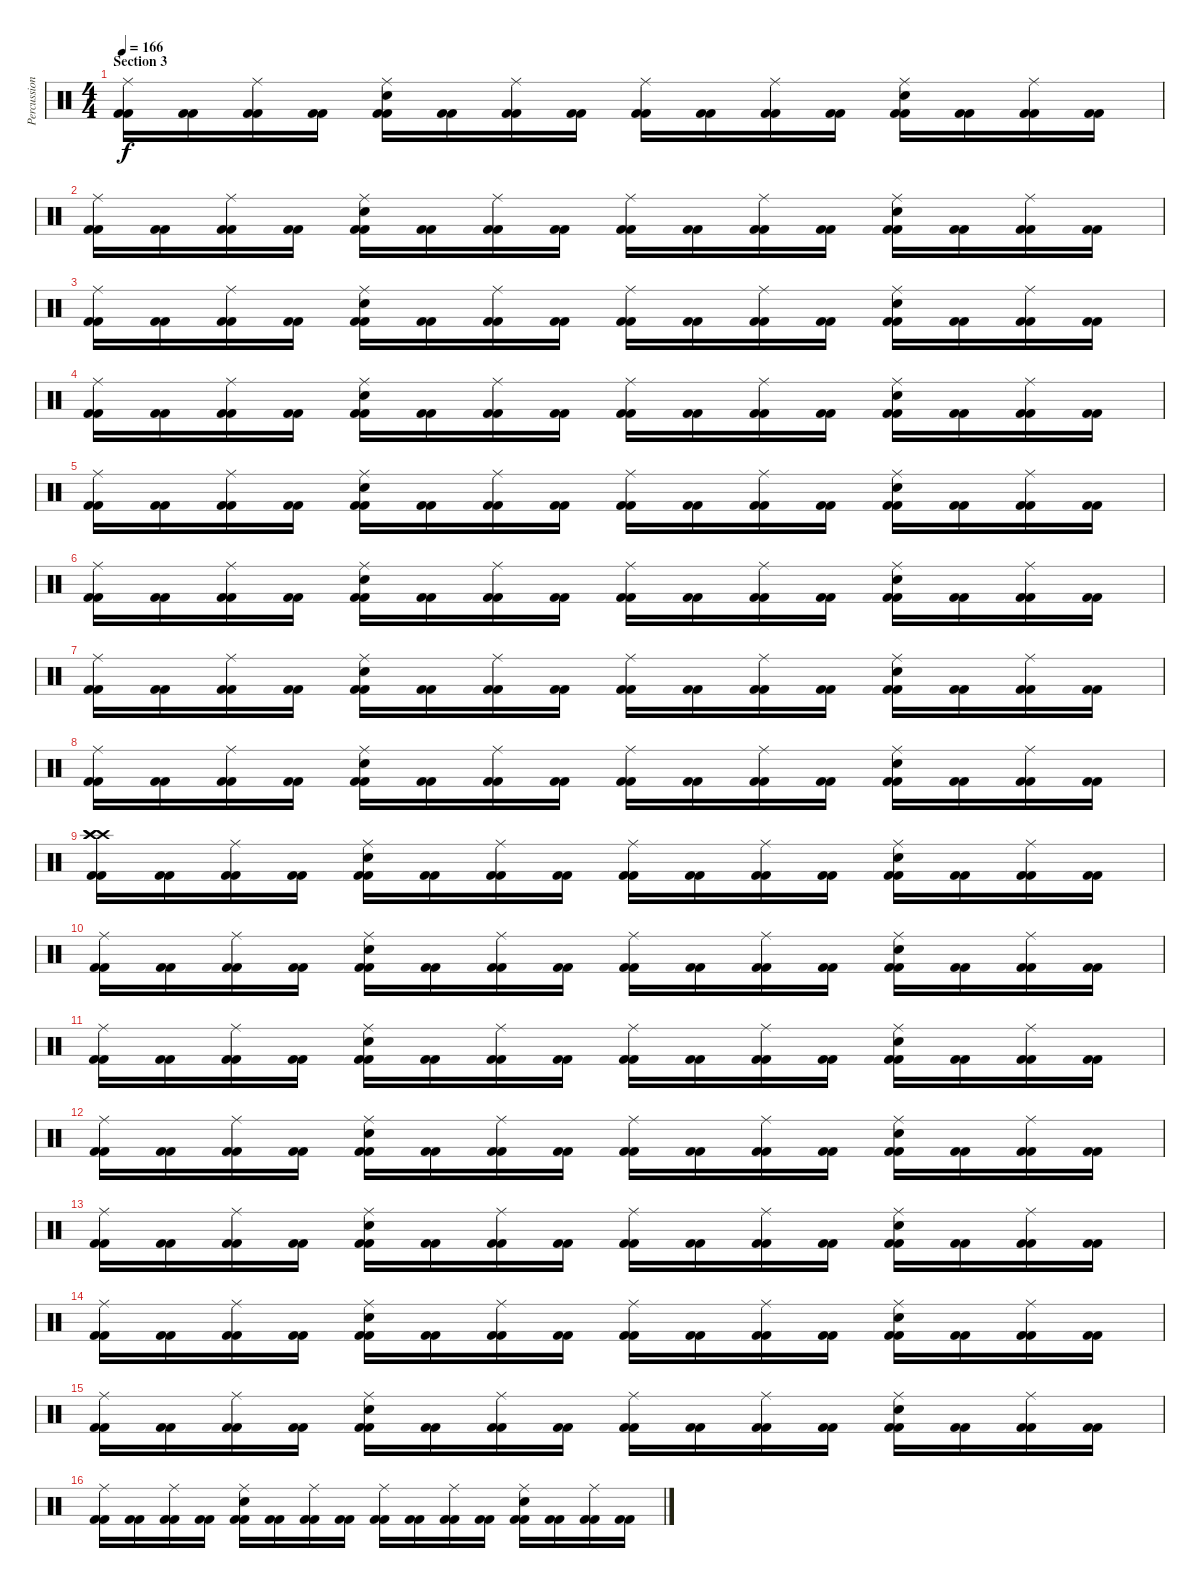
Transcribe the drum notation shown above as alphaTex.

\track ("Percussion" "Percussion") {instrument percussion}
\staff {score}
\articulation defaults
\ts (4 4)
\section ("" "Section 3")
\tempo 166
\clef neutral
\ks c
("Ride (middle)" "Kick (hit) 2" "Kick (hit) 2").16{dy f} ("Kick (hit) 2" "Kick (hit) 2").16 ("Ride (middle)" "Kick (hit) 2" "Kick (hit) 2").16 ("Kick (hit) 2" "Kick (hit) 2").16 ("Ride (middle)" "Electric Snare (hit)" "Kick (hit) 2" "Kick (hit) 2").16 ("Kick (hit) 2" "Kick (hit) 2").16 ("Ride (middle)" "Kick (hit) 2" "Kick (hit) 2").16 ("Kick (hit) 2" "Kick (hit) 2").16 ("Ride (middle)" "Kick (hit) 2" "Kick (hit) 2").16 ("Kick (hit) 2" "Kick (hit) 2").16 ("Ride (middle)" "Kick (hit) 2" "Kick (hit) 2").16 ("Kick (hit) 2" "Kick (hit) 2").16 ("Ride (middle)" "Electric Snare (hit)" "Kick (hit) 2" "Kick (hit) 2").16 ("Kick (hit) 2" "Kick (hit) 2").16 ("Ride (middle)" "Kick (hit) 2" "Kick (hit) 2").16 ("Kick (hit) 2" "Kick (hit) 2").16 |
("Ride (middle)" "Kick (hit) 2" "Kick (hit) 2").16 ("Kick (hit) 2" "Kick (hit) 2").16 ("Ride (middle)" "Kick (hit) 2" "Kick (hit) 2").16 ("Kick (hit) 2" "Kick (hit) 2").16 ("Ride (middle)" "Electric Snare (hit)" "Kick (hit) 2" "Kick (hit) 2").16 ("Kick (hit) 2" "Kick (hit) 2").16 ("Ride (middle)" "Kick (hit) 2" "Kick (hit) 2").16 ("Kick (hit) 2" "Kick (hit) 2").16 ("Ride (middle)" "Kick (hit) 2" "Kick (hit) 2").16 ("Kick (hit) 2" "Kick (hit) 2").16 ("Ride (middle)" "Kick (hit) 2" "Kick (hit) 2").16 ("Kick (hit) 2" "Kick (hit) 2").16 ("Ride (middle)" "Electric Snare (hit)" "Kick (hit) 2" "Kick (hit) 2").16 ("Kick (hit) 2" "Kick (hit) 2").16 ("Ride (middle)" "Kick (hit) 2" "Kick (hit) 2").16 ("Kick (hit) 2" "Kick (hit) 2").16 |
("Ride (middle)" "Kick (hit) 2" "Kick (hit) 2").16 ("Kick (hit) 2" "Kick (hit) 2").16 ("Ride (middle)" "Kick (hit) 2" "Kick (hit) 2").16 ("Kick (hit) 2" "Kick (hit) 2").16 ("Ride (middle)" "Electric Snare (hit)" "Kick (hit) 2" "Kick (hit) 2").16 ("Kick (hit) 2" "Kick (hit) 2").16 ("Ride (middle)" "Kick (hit) 2" "Kick (hit) 2").16 ("Kick (hit) 2" "Kick (hit) 2").16 ("Ride (middle)" "Kick (hit) 2" "Kick (hit) 2").16 ("Kick (hit) 2" "Kick (hit) 2").16 ("Ride (middle)" "Kick (hit) 2" "Kick (hit) 2").16 ("Kick (hit) 2" "Kick (hit) 2").16 ("Ride (middle)" "Electric Snare (hit)" "Kick (hit) 2" "Kick (hit) 2").16 ("Kick (hit) 2" "Kick (hit) 2").16 ("Ride (middle)" "Kick (hit) 2" "Kick (hit) 2").16 ("Kick (hit) 2" "Kick (hit) 2").16 |
("Ride (middle)" "Kick (hit) 2" "Kick (hit) 2").16 ("Kick (hit) 2" "Kick (hit) 2").16 ("Ride (middle)" "Kick (hit) 2" "Kick (hit) 2").16 ("Kick (hit) 2" "Kick (hit) 2").16 ("Ride (middle)" "Electric Snare (hit)" "Kick (hit) 2" "Kick (hit) 2").16 ("Kick (hit) 2" "Kick (hit) 2").16 ("Ride (middle)" "Kick (hit) 2" "Kick (hit) 2").16 ("Kick (hit) 2" "Kick (hit) 2").16 ("Ride (middle)" "Kick (hit) 2" "Kick (hit) 2").16 ("Kick (hit) 2" "Kick (hit) 2").16 ("Ride (middle)" "Kick (hit) 2" "Kick (hit) 2").16 ("Kick (hit) 2" "Kick (hit) 2").16 ("Ride (middle)" "Electric Snare (hit)" "Kick (hit) 2" "Kick (hit) 2").16 ("Kick (hit) 2" "Kick (hit) 2").16 ("Ride (middle)" "Kick (hit) 2" "Kick (hit) 2").16 ("Kick (hit) 2" "Kick (hit) 2").16 |
("Ride (middle)" "Kick (hit) 2" "Kick (hit) 2").16 ("Kick (hit) 2" "Kick (hit) 2").16 ("Ride (middle)" "Kick (hit) 2" "Kick (hit) 2").16 ("Kick (hit) 2" "Kick (hit) 2").16 ("Ride (middle)" "Electric Snare (hit)" "Kick (hit) 2" "Kick (hit) 2").16 ("Kick (hit) 2" "Kick (hit) 2").16 ("Ride (middle)" "Kick (hit) 2" "Kick (hit) 2").16 ("Kick (hit) 2" "Kick (hit) 2").16 ("Ride (middle)" "Kick (hit) 2" "Kick (hit) 2").16 ("Kick (hit) 2" "Kick (hit) 2").16 ("Ride (middle)" "Kick (hit) 2" "Kick (hit) 2").16 ("Kick (hit) 2" "Kick (hit) 2").16 ("Ride (middle)" "Electric Snare (hit)" "Kick (hit) 2" "Kick (hit) 2").16 ("Kick (hit) 2" "Kick (hit) 2").16 ("Ride (middle)" "Kick (hit) 2" "Kick (hit) 2").16 ("Kick (hit) 2" "Kick (hit) 2").16 |
("Ride (middle)" "Kick (hit) 2" "Kick (hit) 2").16 ("Kick (hit) 2" "Kick (hit) 2").16 ("Ride (middle)" "Kick (hit) 2" "Kick (hit) 2").16 ("Kick (hit) 2" "Kick (hit) 2").16 ("Ride (middle)" "Electric Snare (hit)" "Kick (hit) 2" "Kick (hit) 2").16 ("Kick (hit) 2" "Kick (hit) 2").16 ("Ride (middle)" "Kick (hit) 2" "Kick (hit) 2").16 ("Kick (hit) 2" "Kick (hit) 2").16 ("Ride (middle)" "Kick (hit) 2" "Kick (hit) 2").16 ("Kick (hit) 2" "Kick (hit) 2").16 ("Ride (middle)" "Kick (hit) 2" "Kick (hit) 2").16 ("Kick (hit) 2" "Kick (hit) 2").16 ("Ride (middle)" "Electric Snare (hit)" "Kick (hit) 2" "Kick (hit) 2").16 ("Kick (hit) 2" "Kick (hit) 2").16 ("Ride (middle)" "Kick (hit) 2" "Kick (hit) 2").16 ("Kick (hit) 2" "Kick (hit) 2").16 |
("Ride (middle)" "Kick (hit) 2" "Kick (hit) 2").16 ("Kick (hit) 2" "Kick (hit) 2").16 ("Ride (middle)" "Kick (hit) 2" "Kick (hit) 2").16 ("Kick (hit) 2" "Kick (hit) 2").16 ("Ride (middle)" "Electric Snare (hit)" "Kick (hit) 2" "Kick (hit) 2").16 ("Kick (hit) 2" "Kick (hit) 2").16 ("Ride (middle)" "Kick (hit) 2" "Kick (hit) 2").16 ("Kick (hit) 2" "Kick (hit) 2").16 ("Ride (middle)" "Kick (hit) 2" "Kick (hit) 2").16 ("Kick (hit) 2" "Kick (hit) 2").16 ("Ride (middle)" "Kick (hit) 2" "Kick (hit) 2").16 ("Kick (hit) 2" "Kick (hit) 2").16 ("Ride (middle)" "Electric Snare (hit)" "Kick (hit) 2" "Kick (hit) 2").16 ("Kick (hit) 2" "Kick (hit) 2").16 ("Ride (middle)" "Kick (hit) 2" "Kick (hit) 2").16 ("Kick (hit) 2" "Kick (hit) 2").16 |
("Ride (middle)" "Kick (hit) 2" "Kick (hit) 2").16 ("Kick (hit) 2" "Kick (hit) 2").16 ("Ride (middle)" "Kick (hit) 2" "Kick (hit) 2").16 ("Kick (hit) 2" "Kick (hit) 2").16 ("Ride (middle)" "Electric Snare (hit)" "Kick (hit) 2" "Kick (hit) 2").16 ("Kick (hit) 2" "Kick (hit) 2").16 ("Ride (middle)" "Kick (hit) 2" "Kick (hit) 2").16 ("Kick (hit) 2" "Kick (hit) 2").16 ("Ride (middle)" "Kick (hit) 2" "Kick (hit) 2").16 ("Kick (hit) 2" "Kick (hit) 2").16 ("Ride (middle)" "Kick (hit) 2" "Kick (hit) 2").16 ("Kick (hit) 2" "Kick (hit) 2").16 ("Ride (middle)" "Electric Snare (hit)" "Kick (hit) 2" "Kick (hit) 2").16 ("Kick (hit) 2" "Kick (hit) 2").16 ("Ride (middle)" "Kick (hit) 2" "Kick (hit) 2").16 ("Kick (hit) 2" "Kick (hit) 2").16 |
("Crash high (hit)" "Crash high (hit)" "Crash high (hit)" "Kick (hit) 2" "Kick (hit) 2").16 ("Kick (hit) 2" "Kick (hit) 2").16 ("Ride (middle)" "Kick (hit) 2" "Kick (hit) 2").16 ("Kick (hit) 2" "Kick (hit) 2").16 ("Ride (middle)" "Electric Snare (hit)" "Kick (hit) 2" "Kick (hit) 2").16 ("Kick (hit) 2" "Kick (hit) 2").16 ("Ride (middle)" "Kick (hit) 2" "Kick (hit) 2").16 ("Kick (hit) 2" "Kick (hit) 2").16 ("Ride (middle)" "Kick (hit) 2" "Kick (hit) 2").16 ("Kick (hit) 2" "Kick (hit) 2").16 ("Ride (middle)" "Kick (hit) 2" "Kick (hit) 2").16 ("Kick (hit) 2" "Kick (hit) 2").16 ("Ride (middle)" "Electric Snare (hit)" "Kick (hit) 2" "Kick (hit) 2").16 ("Kick (hit) 2" "Kick (hit) 2").16 ("Ride (middle)" "Kick (hit) 2" "Kick (hit) 2").16 ("Kick (hit) 2" "Kick (hit) 2").16 |
("Ride (middle)" "Kick (hit) 2" "Kick (hit) 2").16 ("Kick (hit) 2" "Kick (hit) 2").16 ("Ride (middle)" "Kick (hit) 2" "Kick (hit) 2").16 ("Kick (hit) 2" "Kick (hit) 2").16 ("Ride (middle)" "Electric Snare (hit)" "Kick (hit) 2" "Kick (hit) 2").16 ("Kick (hit) 2" "Kick (hit) 2").16 ("Ride (middle)" "Kick (hit) 2" "Kick (hit) 2").16 ("Kick (hit) 2" "Kick (hit) 2").16 ("Ride (middle)" "Kick (hit) 2" "Kick (hit) 2").16 ("Kick (hit) 2" "Kick (hit) 2").16 ("Ride (middle)" "Kick (hit) 2" "Kick (hit) 2").16 ("Kick (hit) 2" "Kick (hit) 2").16 ("Ride (middle)" "Electric Snare (hit)" "Kick (hit) 2" "Kick (hit) 2").16 ("Kick (hit) 2" "Kick (hit) 2").16 ("Ride (middle)" "Kick (hit) 2" "Kick (hit) 2").16 ("Kick (hit) 2" "Kick (hit) 2").16 |
("Ride (middle)" "Kick (hit) 2" "Kick (hit) 2").16 ("Kick (hit) 2" "Kick (hit) 2").16 ("Ride (middle)" "Kick (hit) 2" "Kick (hit) 2").16 ("Kick (hit) 2" "Kick (hit) 2").16 ("Ride (middle)" "Electric Snare (hit)" "Kick (hit) 2" "Kick (hit) 2").16 ("Kick (hit) 2" "Kick (hit) 2").16 ("Ride (middle)" "Kick (hit) 2" "Kick (hit) 2").16 ("Kick (hit) 2" "Kick (hit) 2").16 ("Ride (middle)" "Kick (hit) 2" "Kick (hit) 2").16 ("Kick (hit) 2" "Kick (hit) 2").16 ("Ride (middle)" "Kick (hit) 2" "Kick (hit) 2").16 ("Kick (hit) 2" "Kick (hit) 2").16 ("Ride (middle)" "Electric Snare (hit)" "Kick (hit) 2" "Kick (hit) 2").16 ("Kick (hit) 2" "Kick (hit) 2").16 ("Ride (middle)" "Kick (hit) 2" "Kick (hit) 2").16 ("Kick (hit) 2" "Kick (hit) 2").16 |
("Ride (middle)" "Kick (hit) 2" "Kick (hit) 2").16 ("Kick (hit) 2" "Kick (hit) 2").16 ("Ride (middle)" "Kick (hit) 2" "Kick (hit) 2").16 ("Kick (hit) 2" "Kick (hit) 2").16 ("Ride (middle)" "Electric Snare (hit)" "Kick (hit) 2" "Kick (hit) 2").16 ("Kick (hit) 2" "Kick (hit) 2").16 ("Ride (middle)" "Kick (hit) 2" "Kick (hit) 2").16 ("Kick (hit) 2" "Kick (hit) 2").16 ("Ride (middle)" "Kick (hit) 2" "Kick (hit) 2").16 ("Kick (hit) 2" "Kick (hit) 2").16 ("Ride (middle)" "Kick (hit) 2" "Kick (hit) 2").16 ("Kick (hit) 2" "Kick (hit) 2").16 ("Ride (middle)" "Electric Snare (hit)" "Kick (hit) 2" "Kick (hit) 2").16 ("Kick (hit) 2" "Kick (hit) 2").16 ("Ride (middle)" "Kick (hit) 2" "Kick (hit) 2").16 ("Kick (hit) 2" "Kick (hit) 2").16 |
("Ride (middle)" "Kick (hit) 2" "Kick (hit) 2").16 ("Kick (hit) 2" "Kick (hit) 2").16 ("Ride (middle)" "Kick (hit) 2" "Kick (hit) 2").16 ("Kick (hit) 2" "Kick (hit) 2").16 ("Ride (middle)" "Electric Snare (hit)" "Kick (hit) 2" "Kick (hit) 2").16 ("Kick (hit) 2" "Kick (hit) 2").16 ("Ride (middle)" "Kick (hit) 2" "Kick (hit) 2").16 ("Kick (hit) 2" "Kick (hit) 2").16 ("Ride (middle)" "Kick (hit) 2" "Kick (hit) 2").16 ("Kick (hit) 2" "Kick (hit) 2").16 ("Ride (middle)" "Kick (hit) 2" "Kick (hit) 2").16 ("Kick (hit) 2" "Kick (hit) 2").16 ("Ride (middle)" "Electric Snare (hit)" "Kick (hit) 2" "Kick (hit) 2").16 ("Kick (hit) 2" "Kick (hit) 2").16 ("Ride (middle)" "Kick (hit) 2" "Kick (hit) 2").16 ("Kick (hit) 2" "Kick (hit) 2").16 |
("Ride (middle)" "Kick (hit) 2" "Kick (hit) 2").16 ("Kick (hit) 2" "Kick (hit) 2").16 ("Ride (middle)" "Kick (hit) 2" "Kick (hit) 2").16 ("Kick (hit) 2" "Kick (hit) 2").16 ("Ride (middle)" "Electric Snare (hit)" "Kick (hit) 2" "Kick (hit) 2").16 ("Kick (hit) 2" "Kick (hit) 2").16 ("Ride (middle)" "Kick (hit) 2" "Kick (hit) 2").16 ("Kick (hit) 2" "Kick (hit) 2").16 ("Ride (middle)" "Kick (hit) 2" "Kick (hit) 2").16 ("Kick (hit) 2" "Kick (hit) 2").16 ("Ride (middle)" "Kick (hit) 2" "Kick (hit) 2").16 ("Kick (hit) 2" "Kick (hit) 2").16 ("Ride (middle)" "Electric Snare (hit)" "Kick (hit) 2" "Kick (hit) 2").16 ("Kick (hit) 2" "Kick (hit) 2").16 ("Ride (middle)" "Kick (hit) 2" "Kick (hit) 2").16 ("Kick (hit) 2" "Kick (hit) 2").16 |
("Ride (middle)" "Kick (hit) 2" "Kick (hit) 2").16 ("Kick (hit) 2" "Kick (hit) 2").16 ("Ride (middle)" "Kick (hit) 2" "Kick (hit) 2").16 ("Kick (hit) 2" "Kick (hit) 2").16 ("Ride (middle)" "Electric Snare (hit)" "Kick (hit) 2" "Kick (hit) 2").16 ("Kick (hit) 2" "Kick (hit) 2").16 ("Ride (middle)" "Kick (hit) 2" "Kick (hit) 2").16 ("Kick (hit) 2" "Kick (hit) 2").16 ("Ride (middle)" "Kick (hit) 2" "Kick (hit) 2").16 ("Kick (hit) 2" "Kick (hit) 2").16 ("Ride (middle)" "Kick (hit) 2" "Kick (hit) 2").16 ("Kick (hit) 2" "Kick (hit) 2").16 ("Ride (middle)" "Electric Snare (hit)" "Kick (hit) 2" "Kick (hit) 2").16 ("Kick (hit) 2" "Kick (hit) 2").16 ("Ride (middle)" "Kick (hit) 2" "Kick (hit) 2").16 ("Kick (hit) 2" "Kick (hit) 2").16 |
("Ride (middle)" "Kick (hit) 2" "Kick (hit) 2").16 ("Kick (hit) 2" "Kick (hit) 2").16 ("Ride (middle)" "Kick (hit) 2" "Kick (hit) 2").16 ("Kick (hit) 2" "Kick (hit) 2").16 ("Ride (middle)" "Electric Snare (hit)" "Kick (hit) 2" "Kick (hit) 2").16 ("Kick (hit) 2" "Kick (hit) 2").16 ("Ride (middle)" "Kick (hit) 2" "Kick (hit) 2").16 ("Kick (hit) 2" "Kick (hit) 2").16 ("Ride (middle)" "Kick (hit) 2" "Kick (hit) 2").16 ("Kick (hit) 2" "Kick (hit) 2").16 ("Ride (middle)" "Kick (hit) 2" "Kick (hit) 2").16 ("Kick (hit) 2" "Kick (hit) 2").16 ("Ride (middle)" "Electric Snare (hit)" "Kick (hit) 2" "Kick (hit) 2").16 ("Kick (hit) 2" "Kick (hit) 2").16 ("Ride (middle)" "Kick (hit) 2" "Kick (hit) 2").16 ("Kick (hit) 2" "Kick (hit) 2").16
